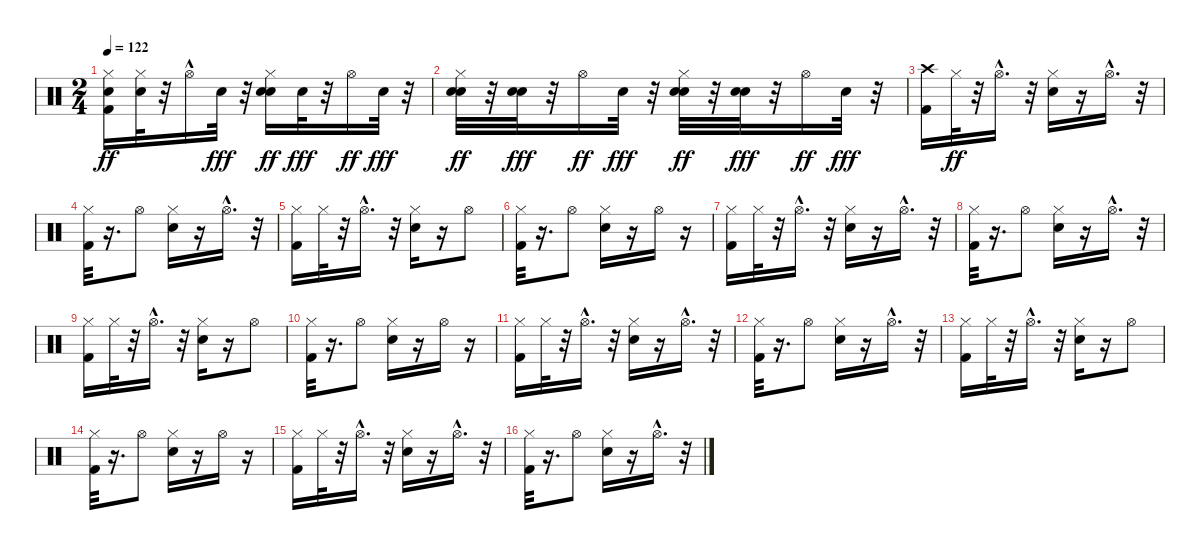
\track "" {instrument percussion}
\staff {score}
\articulation defaults
\ts (2 4)
\tempo 122
\clef neutral
\ks c
("Kick (hit) 2" "Hand Clap (hit)" "Hi-Hat (closed)").16{dy ff} ("Hand Clap (hit)" "Hi-Hat (closed)").32 r.32 "Hi-Hat (open)"{hac}.16 "Hand Clap (hit)".32{dy fff} r.32 ("Snare (hit) 2" "Hand Clap (hit)" "Hi-Hat (closed)").16{dy ff} "Hand Clap (hit)".32{dy fff} r.32 "Hi-Hat (open)".16{dy ff} "Hand Clap (hit)".32{dy fff} r.32 |
("Snare (hit) 2" "Hand Clap (hit)" "Hi-Hat (closed)").32{dy ff} r.32 ("Snare (hit) 2" "Hand Clap (hit)").32{dy fff} r.32 "Hi-Hat (open)".16{dy ff} "Hand Clap (hit)".32{dy fff} r.32 ("Snare (hit) 2" "Hand Clap (hit)" "Hi-Hat (closed)").32{dy ff} r.32 ("Hand Clap (hit)" "Snare (hit) 2").32{dy fff} r.32 "Hi-Hat (open)".16{dy ff} "Snare (hit) 2".32{dy fff} r.32 |
("Kick (hit) 2" "Crash high (hit)").16 "Hi-Hat (closed)".32{dy ff} r.32 "Hi-Hat (open)"{hac}.16{d} r.32 ("Snare (hit) 2" "Hi-Hat (closed)").16 r.16 "Hi-Hat (open)"{hac}.16{d} r.32 |
("Kick (hit) 2" "Hi-Hat (closed)").32 r.16{d} "Hi-Hat (open)".8 ("Snare (hit) 2" "Hi-Hat (closed)").16 r.16 "Hi-Hat (open)"{hac}.16{d} r.32 |
("Kick (hit) 2" "Hi-Hat (closed)").16 "Hi-Hat (closed)".32 r.32 "Hi-Hat (open)"{hac}.16{d} r.32 ("Snare (hit) 2" "Hi-Hat (closed)").16 r.16 "Hi-Hat (open)".8 |
("Kick (hit) 2" "Hi-Hat (closed)").32 r.16{d} "Hi-Hat (open)".8 ("Snare (hit) 2" "Hi-Hat (closed)").16 r.16 "Hi-Hat (open)".16 r.16 |
("Kick (hit) 2" "Hi-Hat (closed)").16 "Hi-Hat (closed)".32 r.32 "Hi-Hat (open)"{hac}.16{d} r.32 ("Snare (hit) 2" "Hi-Hat (closed)").16 r.16 "Hi-Hat (open)"{hac}.16{d} r.32 |
("Kick (hit) 2" "Hi-Hat (closed)").32 r.16{d} "Hi-Hat (open)".8 ("Snare (hit) 2" "Hi-Hat (closed)").16 r.16 "Hi-Hat (open)"{hac}.16{d} r.32 |
("Kick (hit) 2" "Hi-Hat (closed)").16 "Hi-Hat (closed)".32 r.32 "Hi-Hat (open)"{hac}.16{d} r.32 ("Snare (hit) 2" "Hi-Hat (closed)").16 r.16 "Hi-Hat (open)".8 |
("Kick (hit) 2" "Hi-Hat (closed)").32 r.16{d} "Hi-Hat (open)".8 ("Snare (hit) 2" "Hi-Hat (closed)").16 r.16 "Hi-Hat (open)".16 r.16 |
("Kick (hit) 2" "Hi-Hat (closed)").16 "Hi-Hat (closed)".32 r.32 "Hi-Hat (open)"{hac}.16{d} r.32 ("Snare (hit) 2" "Hi-Hat (closed)").16 r.16 "Hi-Hat (open)"{hac}.16{d} r.32 |
("Kick (hit) 2" "Hi-Hat (closed)").32 r.16{d} "Hi-Hat (open)".8 ("Snare (hit) 2" "Hi-Hat (closed)").16 r.16 "Hi-Hat (open)"{hac}.16{d} r.32 |
("Kick (hit) 2" "Hi-Hat (closed)").16 "Hi-Hat (closed)".32 r.32 "Hi-Hat (open)"{hac}.16{d} r.32 ("Snare (hit) 2" "Hi-Hat (closed)").16 r.16 "Hi-Hat (open)".8 |
("Kick (hit) 2" "Hi-Hat (closed)").32 r.16{d} "Hi-Hat (open)".8 ("Snare (hit) 2" "Hi-Hat (closed)").16 r.16 "Hi-Hat (open)".16 r.16 |
("Kick (hit) 2" "Hi-Hat (closed)").16 "Hi-Hat (closed)".32 r.32 "Hi-Hat (open)"{hac}.16{d} r.32 ("Snare (hit) 2" "Hi-Hat (closed)").16 r.16 "Hi-Hat (open)"{hac}.16{d} r.32 |
("Kick (hit) 2" "Hi-Hat (closed)").32 r.16{d} "Hi-Hat (open)".8 ("Snare (hit) 2" "Hi-Hat (closed)").16 r.16 "Hi-Hat (open)"{hac}.16{d} r.32
